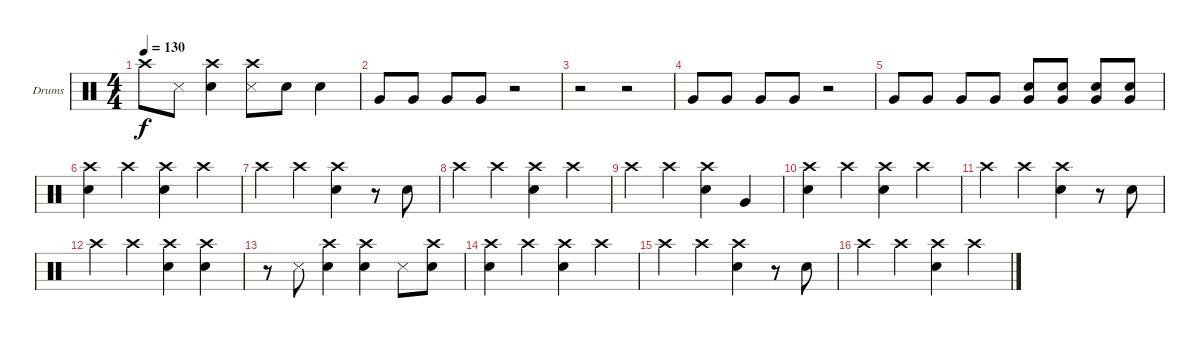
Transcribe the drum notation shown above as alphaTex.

\defaultSystemsLayout 4
\bracketExtendMode groupsimilarinstruments
\firstSystemTrackNameOrientation horizontal
\otherSystemsTrackNameOrientation horizontal
\track ("Drumkit" "Drums") {instrument percussion}
\staff {score}
\articulation defaults
\ts (4 4)
\tempo 130
\clef neutral
\ks c "Crash high (hit)".8{dy f} "Snare (side stick) 3".8
("Snare (hit) 2" "Crash high (hit)").4 ("Snare (side stick) 3" "Crash high (hit)").8 "Snare (hit) 2".8 "Snare (hit) 2".4 |
"Very Low Tom (hit)".8 "Very Low Tom (hit)".8 "Very Low Tom (hit)".8 "Very Low Tom (hit)".8 r.2 |
r.2 r.2 |
"Very Low Tom (hit)".8 "Very Low Tom (hit)".8 "Very Low Tom (hit)".8 "Very Low Tom (hit)".8 r.2 |
"Very Low Tom (hit)".8 "Very Low Tom (hit)".8 "Very Low Tom (hit)".8 "Very Low Tom (hit)".8 ("Snare (hit) 2" "Very Low Tom (hit)").8 ("Snare (hit) 2" "Very Low Tom (hit)").8 ("Snare (hit) 2" "Very Low Tom (hit)").8 ("Snare (hit) 2" "Very Low Tom (hit)").8 |
("Crash high (hit)" "Snare (hit) 2").4 "Crash high (hit)".4 ("Crash high (hit)" "Snare (hit) 2").4 "Crash high (hit)".4 |
"Crash high (hit)".4 "Crash high (hit)".4 ("Crash high (hit)" "Snare (hit) 2").4 r.8 "Snare (hit) 2".8 |
"Crash high (hit)".4 "Crash high (hit)".4 ("Crash high (hit)" "Snare (hit) 2").4 "Crash high (hit)".4 |
"Crash high (hit)".4 "Crash high (hit)".4 ("Crash high (hit)" "Snare (hit) 2").4 "Very Low Tom (hit)".4 |
("Crash high (hit)" "Snare (hit) 2").4 "Crash high (hit)".4 ("Crash high (hit)" "Snare (hit) 2").4 "Crash high (hit)".4 |
"Crash high (hit)".4 "Crash high (hit)".4 ("Crash high (hit)" "Snare (hit) 2").4 r.8 "Snare (hit) 2".8 |
"Crash high (hit)".4 "Crash high (hit)".4 ("Crash high (hit)" "Snare (hit) 2").4 ("Crash high (hit)" "Snare (hit) 2").4 |
r.8 "Snare (side stick) 3".8 ("Crash high (hit)" "Snare (hit) 2").4 ("Crash high (hit)" "Snare (hit) 2").4 "Snare (side stick) 3".8 ("Crash high (hit)" "Snare (hit) 2").8 |
("Crash high (hit)" "Snare (hit) 2").4 "Crash high (hit)".4 ("Crash high (hit)" "Snare (hit) 2").4 "Crash high (hit)".4 |
"Crash high (hit)".4 "Crash high (hit)".4 ("Crash high (hit)" "Snare (hit) 2").4 r.8 "Snare (hit) 2".8 |
"Crash high (hit)".4 "Crash high (hit)".4 ("Crash high (hit)" "Snare (hit) 2").4 "Crash high (hit)".4
